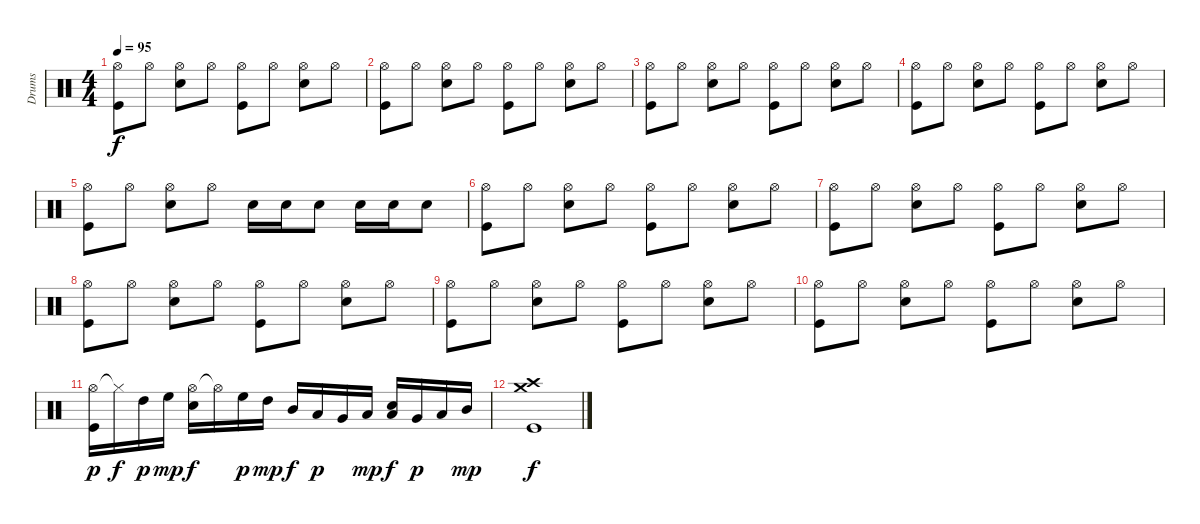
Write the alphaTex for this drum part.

\track ("Drums" "Drums") {instrument percussion}
\staff {score}
\articulation defaults
\ts (4 4)
\tempo 95
\clef neutral
\ks c
("Hi-Hat (open)" "Kick (hit)").8{dy f} "Hi-Hat (open)".8 ("Hi-Hat (open)" "Electric Snare (hit)").8 "Hi-Hat (open)".8 ("Hi-Hat (open)" "Kick (hit)").8 "Hi-Hat (open)".8 ("Hi-Hat (open)" "Electric Snare (hit)").8 "Hi-Hat (open)".8 |
("Hi-Hat (open)" "Kick (hit)").8 "Hi-Hat (open)".8 ("Hi-Hat (open)" "Electric Snare (hit)").8 "Hi-Hat (open)".8 ("Hi-Hat (open)" "Kick (hit)").8 "Hi-Hat (open)".8 ("Hi-Hat (open)" "Electric Snare (hit)").8 "Hi-Hat (open)".8 |
("Hi-Hat (open)" "Kick (hit)").8 "Hi-Hat (open)".8 ("Hi-Hat (open)" "Electric Snare (hit)").8 "Hi-Hat (open)".8 ("Hi-Hat (open)" "Kick (hit)").8 "Hi-Hat (open)".8 ("Hi-Hat (open)" "Electric Snare (hit)").8 "Hi-Hat (open)".8 |
("Hi-Hat (open)" "Kick (hit)").8 "Hi-Hat (open)".8 ("Hi-Hat (open)" "Electric Snare (hit)").8 "Hi-Hat (open)".8 ("Hi-Hat (open)" "Kick (hit)").8 "Hi-Hat (open)".8 ("Hi-Hat (open)" "Electric Snare (hit)").8 "Hi-Hat (open)".8 |
("Hi-Hat (open)" "Kick (hit)").8 "Hi-Hat (open)".8 ("Hi-Hat (open)" "Electric Snare (hit)").8 "Hi-Hat (open)".8 "Electric Snare (hit)".16 "Electric Snare (hit)".16 "Snare (hit) 2".8 "Electric Snare (hit)".16 "Electric Snare (hit)".16 "Snare (hit) 2".8 |
("Hi-Hat (open)" "Kick (hit)").8 "Hi-Hat (open)".8 ("Hi-Hat (open)" "Electric Snare (hit)").8 "Hi-Hat (open)".8 ("Hi-Hat (open)" "Kick (hit)").8 "Hi-Hat (open)".8 ("Hi-Hat (open)" "Electric Snare (hit)").8 "Hi-Hat (open)".8 |
("Hi-Hat (open)" "Kick (hit)").8 "Hi-Hat (open)".8 ("Hi-Hat (open)" "Electric Snare (hit)").8 "Hi-Hat (open)".8 ("Hi-Hat (open)" "Kick (hit)").8 "Hi-Hat (open)".8 ("Hi-Hat (open)" "Electric Snare (hit)").8 "Hi-Hat (open)".8 |
("Hi-Hat (open)" "Kick (hit)").8 "Hi-Hat (open)".8 ("Hi-Hat (open)" "Electric Snare (hit)").8 "Hi-Hat (open)".8 ("Hi-Hat (open)" "Kick (hit)").8 "Hi-Hat (open)".8 ("Hi-Hat (open)" "Electric Snare (hit)").8 "Hi-Hat (open)".8 |
("Hi-Hat (open)" "Kick (hit)").8 "Hi-Hat (open)".8 ("Hi-Hat (open)" "Electric Snare (hit)").8 "Hi-Hat (open)".8 ("Hi-Hat (open)" "Kick (hit)").8 "Hi-Hat (open)".8 ("Hi-Hat (open)" "Electric Snare (hit)").8 "Hi-Hat (open)".8 |
("Hi-Hat (open)" "Kick (hit)").8 "Hi-Hat (open)".8 ("Hi-Hat (open)" "Electric Snare (hit)").8 "Hi-Hat (open)".8 ("Hi-Hat (open)" "Kick (hit)").8 "Hi-Hat (open)".8 ("Hi-Hat (open)" "Electric Snare (hit)").8 "Hi-Hat (open)".8 |
("Hi-Hat (open)" "Kick (hit)").16{dy p} "Hi-Hat (closed)"{t}.16{dy f} "High Tom (hit)".16{dy p} "High Floor Tom (hit)".16{dy mp} ("Hi-Hat (open)" "Snare (hit) 2").16{dy f} "Hi-Hat (open)"{t}.16 "High Floor Tom (hit)".16{dy p} "High Tom (hit)".16{dy mp} "Mid Tom (hit)".16{dy f} "Low Tom (hit)".16{dy p} "Very Low Tom (hit)".16 "Low Floor Tom (hit)".16{dy mp} ("Low Floor Tom (hit)" "Snare (hit) 2").16{dy f} "Very Low Tom (hit)".16{dy p} "Low Tom (hit)".16 "Mid Tom (hit)".16{dy mp} |
("Crash high (hit)" "Crash medium (hit)" "Kick (hit)").1{dy f}
